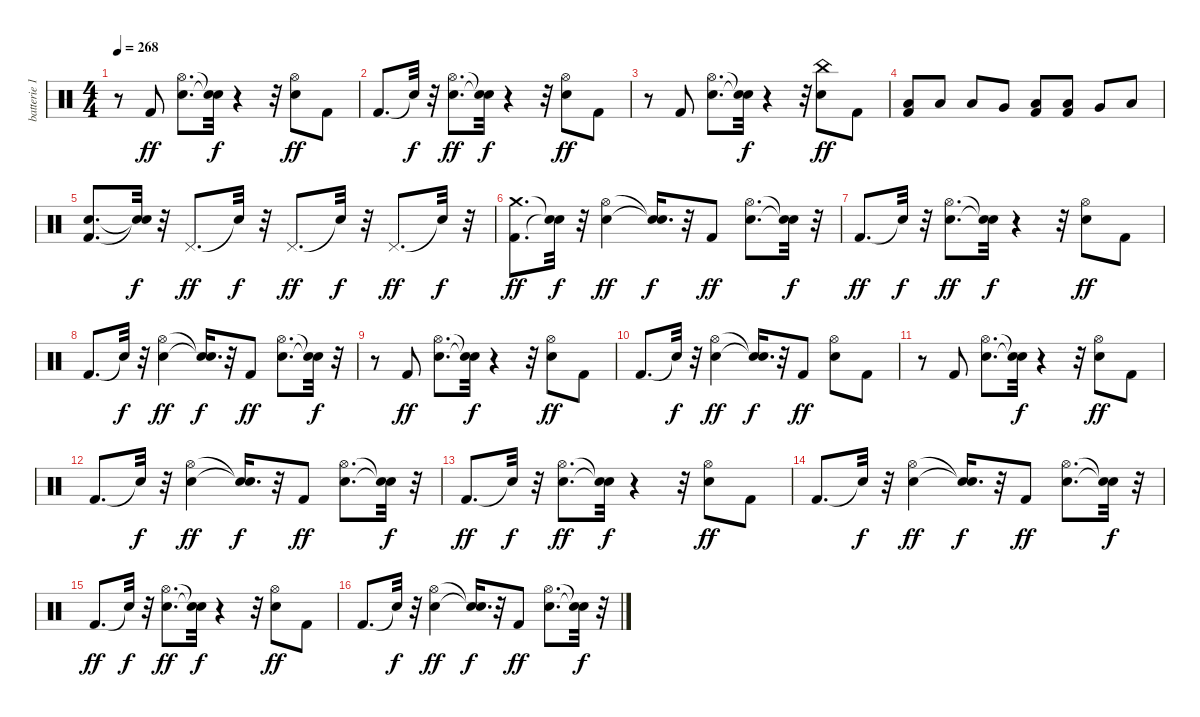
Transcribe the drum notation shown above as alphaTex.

\track ("batterie 1" "batterie 1") {instrument percussion}
\staff {score}
\articulation defaults
\ts (4 4)
\tempo 268
\clef neutral
\ks c
r.8{dy f} "Kick (hit) 2".8{dy ff} ("Electric Snare (hit)" "Hi-Hat (open)").8{d} ("Snare (hit)"{t} "Snare (hit)"{t}).32{dy f} r.4 r.32 ("Electric Snare (hit)" "Hi-Hat (open)").8{dy ff} "Kick (hit) 2".8 |
"Kick (hit) 2".8{d} "Snare (hit)"{t}.32{dy f} r.32 ("Electric Snare (hit)" "Hi-Hat (open)").8{d dy ff} ("Snare (hit)"{t} "Snare (hit)"{t}).32{dy f} r.4 r.32 ("Electric Snare (hit)" "Hi-Hat (open)").8{dy ff} "Kick (hit) 2".8 |
r.8 "Kick (hit) 2".8 ("Electric Snare (hit)" "Hi-Hat (open)").8{d} ("Snare (hit)"{t} "Snare (hit)"{t}).32{dy f} r.4 r.32 ("Electric Snare (hit)" "China (hit)").8{dy ff} "Kick (hit) 2".8 |
("Kick (hit) 2" "Low Floor Tom (hit)").8 "Low Floor Tom (hit)".8 "Low Tom (hit)".8 "Very Low Tom (hit)".8 ("Kick (hit) 2" "Low Floor Tom (hit)").8 ("Kick (hit) 2" "Low Tom (hit)").8 "Very Low Tom (hit)".8 "Low Floor Tom (hit)".8 |
("Kick (hit) 2" "Electric Snare (hit)").8{d} ("Snare (hit)"{t} "Snare (hit)"{t}).32{dy f} r.32 "Pedal Hi-Hat (hit)".8{d dy ff} "Snare (hit)"{t}.32{dy f} r.32 "Pedal Hi-Hat (hit)".8{d dy ff} "Snare (hit)"{t}.32{dy f} r.32 "Pedal Hi-Hat (hit)".8{d dy ff} "Snare (hit)"{t}.32{dy f} r.32 |
("Kick (hit) 2" "Crash medium (hit)").8{d dy ff} ("Snare (hit)"{t} "Snare (hit)"{t}).32{dy f} r.32 ("Electric Snare (hit)" "Hi-Hat (open)").4{dy ff} ("Snare (hit)"{t} "Snare (hit)"{t}).16{d dy f} r.32 "Kick (hit) 2".8{dy ff} ("Electric Snare (hit)" "Hi-Hat (open)").8{d} ("Snare (hit)"{t} "Snare (hit)"{t}).32{dy f} r.32 |
"Kick (hit) 2".8{d dy ff} "Snare (hit)"{t}.32{dy f} r.32 ("Electric Snare (hit)" "Hi-Hat (open)").8{d dy ff} ("Snare (hit)"{t} "Snare (hit)"{t}).32{dy f} r.4 r.32 ("Electric Snare (hit)" "Hi-Hat (open)").8{dy ff} "Kick (hit) 2".8 |
"Kick (hit) 2".8{d} "Snare (hit)"{t}.32{dy f} r.32 ("Electric Snare (hit)" "Hi-Hat (open)").4{dy ff} ("Snare (hit)"{t} "Snare (hit)"{t}).16{d dy f} r.32 "Kick (hit) 2".8{dy ff} ("Electric Snare (hit)" "Hi-Hat (open)").8{d} ("Snare (hit)"{t} "Snare (hit)"{t}).32{dy f} r.32 |
r.8 "Kick (hit) 2".8{dy ff} ("Electric Snare (hit)" "Hi-Hat (open)").8{d} ("Snare (hit)"{t} "Snare (hit)"{t}).32{dy f} r.4 r.32 ("Electric Snare (hit)" "Hi-Hat (open)").8{dy ff} "Kick (hit) 2".8 |
"Kick (hit) 2".8{d} "Snare (hit)"{t}.32{dy f} r.32 ("Electric Snare (hit)" "Hi-Hat (open)").4{dy ff} ("Snare (hit)"{t} "Snare (hit)"{t}).16{d dy f} r.32 "Kick (hit) 2".8{dy ff} ("Electric Snare (hit)" "Hi-Hat (open)").8 "Kick (hit) 2".8 |
r.8 "Kick (hit) 2".8 ("Electric Snare (hit)" "Hi-Hat (open)").8{d} ("Snare (hit)"{t} "Snare (hit)"{t}).32{dy f} r.4 r.32 ("Electric Snare (hit)" "Hi-Hat (open)").8{dy ff} "Kick (hit) 2".8 |
"Kick (hit) 2".8{d} "Snare (hit)"{t}.32{dy f} r.32 ("Electric Snare (hit)" "Hi-Hat (open)").4{dy ff} ("Snare (hit)"{t} "Snare (hit)"{t}).16{d dy f} r.32 "Kick (hit) 2".8{dy ff} ("Electric Snare (hit)" "Hi-Hat (open)").8{d} ("Snare (hit)"{t} "Snare (hit)"{t}).32{dy f} r.32 |
"Kick (hit) 2".8{d dy ff} "Snare (hit)"{t}.32{dy f} r.32 ("Electric Snare (hit)" "Hi-Hat (open)").8{d dy ff} ("Snare (hit)"{t} "Snare (hit)"{t}).32{dy f} r.4 r.32 ("Electric Snare (hit)" "Hi-Hat (open)").8{dy ff} "Kick (hit) 2".8 |
"Kick (hit) 2".8{d} "Snare (hit)"{t}.32{dy f} r.32 ("Electric Snare (hit)" "Hi-Hat (open)").4{dy ff} ("Snare (hit)"{t} "Snare (hit)"{t}).16{d dy f} r.32 "Kick (hit) 2".8{dy ff} ("Electric Snare (hit)" "Hi-Hat (open)").8{d} ("Snare (hit)"{t} "Snare (hit)"{t}).32{dy f} r.32 |
"Kick (hit) 2".8{d dy ff} "Snare (hit)"{t}.32{dy f} r.32 ("Electric Snare (hit)" "Hi-Hat (open)").8{d dy ff} ("Snare (hit)"{t} "Snare (hit)"{t}).32{dy f} r.4 r.32 ("Electric Snare (hit)" "Hi-Hat (open)").8{dy ff} "Kick (hit) 2".8 |
"Kick (hit) 2".8{d} "Snare (hit)"{t}.32{dy f} r.32 ("Electric Snare (hit)" "Hi-Hat (open)").4{dy ff} ("Snare (hit)"{t} "Snare (hit)"{t}).16{d dy f} r.32 "Kick (hit) 2".8{dy ff} ("Electric Snare (hit)" "Hi-Hat (open)").8{d} ("Snare (hit)"{t} "Snare (hit)"{t}).32{dy f} r.32
